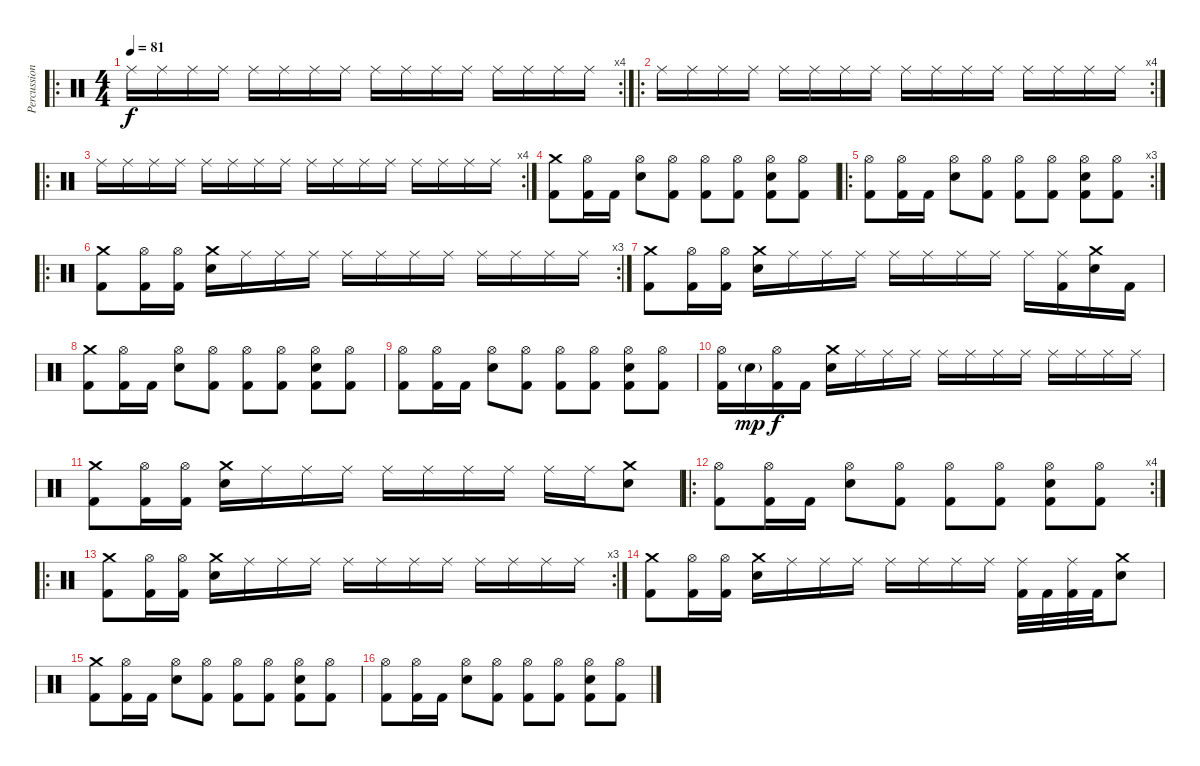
\track ("Percussion" "Percussion") {instrument percussion}
\staff {score}
\articulation defaults
\ro
\rc 4
\ts (4 4)
\tempo 81
\clef neutral
\ks c "Ride (middle)".16{dy f} "Ride (middle)".16 "Ride (middle)".16 "Ride (middle)".16 "Ride (middle)".16 "Ride (middle)".16 "Ride (middle)".16 "Ride (middle)".16 "Ride (middle)".16 "Ride (middle)".16 "Ride (middle)".16 "Ride (middle)".16 "Ride (middle)".16 "Ride (middle)".16 "Ride (middle)".16 "Ride (middle)".16
|
\ro
\rc 4 "Ride (middle)".16 "Ride (middle)".16 "Ride (middle)".16 "Ride (middle)".16 "Ride (middle)".16 "Ride (middle)".16 "Ride (middle)".16 "Ride (middle)".16 "Ride (middle)".16 "Ride (middle)".16 "Ride (middle)".16 "Ride (middle)".16 "Ride (middle)".16 "Ride (middle)".16 "Ride (middle)".16 "Ride (middle)".16
|
\ro
\rc 4 "Ride (middle)".16 "Ride (middle)".16 "Ride (middle)".16 "Ride (middle)".16 "Ride (middle)".16 "Ride (middle)".16 "Ride (middle)".16 "Ride (middle)".16 "Ride (middle)".16 "Ride (middle)".16 "Ride (middle)".16 "Ride (middle)".16 "Ride (middle)".16 "Ride (middle)".16 "Ride (middle)".16 "Ride (middle)".16
|
("Crash medium (hit)" "Kick (hit) 2").8 ("Hi-Hat (open)" "Kick (hit) 2").16 "Kick (hit) 2".16 ("Hi-Hat (open)" "Electric Snare (hit)").8 ("Hi-Hat (open)" "Kick (hit) 2").8 ("Hi-Hat (open)" "Kick (hit) 2").8 ("Hi-Hat (open)" "Kick (hit) 2").8 ("Hi-Hat (open)" "Electric Snare (hit)" "Kick (hit) 2").8 ("Hi-Hat (open)" "Kick (hit) 2").8 |
\ro
\rc 3
("Hi-Hat (open)" "Kick (hit) 2").8 ("Hi-Hat (open)" "Kick (hit) 2").16 "Kick (hit) 2".16 ("Hi-Hat (open)" "Electric Snare (hit)").8 ("Hi-Hat (open)" "Kick (hit) 2").8 ("Hi-Hat (open)" "Kick (hit) 2").8 ("Hi-Hat (open)" "Kick (hit) 2").8 ("Hi-Hat (open)" "Electric Snare (hit)" "Kick (hit) 2").8 ("Hi-Hat (open)" "Kick (hit) 2").8 |
\ro
\rc 3
("Crash medium (hit)" "Kick (hit) 2").8 ("Hi-Hat (open)" "Kick (hit) 2").16 ("Hi-Hat (open)" "Kick (hit) 2").16 ("Crash medium (hit)" "Electric Snare (hit)").16 "Ride (middle)".16 "Ride (middle)".16 "Ride (middle)".16 "Ride (middle)".16 "Ride (middle)".16 "Ride (middle)".16 "Ride (middle)".16 "Ride (middle)".16 "Ride (middle)".16 "Ride (middle)".16 "Ride (middle)".16 |
("Crash medium (hit)" "Kick (hit) 2").8 ("Hi-Hat (open)" "Kick (hit) 2").16 ("Hi-Hat (open)" "Kick (hit) 2").16 ("Crash medium (hit)" "Electric Snare (hit)").16 "Ride (middle)".16 "Ride (middle)".16 "Ride (middle)".16 "Ride (middle)".16 "Ride (middle)".16 "Ride (middle)".16 "Ride (middle)".16 "Ride (middle)".16 ("Ride (middle)" "Kick (hit) 2").16 ("Crash medium (hit)" "Electric Snare (hit)").16 "Kick (hit) 2".16 |
("Crash medium (hit)" "Kick (hit) 2").8 ("Hi-Hat (open)" "Kick (hit) 2").16 "Kick (hit) 2".16 ("Hi-Hat (open)" "Electric Snare (hit)").8 ("Hi-Hat (open)" "Kick (hit) 2").8 ("Hi-Hat (open)" "Kick (hit) 2").8 ("Hi-Hat (open)" "Kick (hit) 2").8 ("Hi-Hat (open)" "Electric Snare (hit)" "Kick (hit) 2").8 ("Hi-Hat (open)" "Kick (hit) 2").8 |
("Hi-Hat (open)" "Kick (hit) 2").8 ("Hi-Hat (open)" "Kick (hit) 2").16 "Kick (hit) 2".16 ("Hi-Hat (open)" "Electric Snare (hit)").8 ("Hi-Hat (open)" "Kick (hit) 2").8 ("Hi-Hat (open)" "Kick (hit) 2").8 ("Hi-Hat (open)" "Kick (hit) 2").8 ("Hi-Hat (open)" "Electric Snare (hit)" "Kick (hit) 2").8 ("Hi-Hat (open)" "Kick (hit) 2").8 |
("Hi-Hat (open)" "Kick (hit) 2").16 "Electric Snare (hit)"{g}.16{dy mp} ("Hi-Hat (open)" "Kick (hit) 2").16{dy f} "Kick (hit) 2".16 ("Crash medium (hit)" "Electric Snare (hit)").16 "Ride (middle)".16 "Ride (middle)".16 "Ride (middle)".16 "Ride (middle)".16 "Ride (middle)".16 "Ride (middle)".16 "Ride (middle)".16 "Ride (middle)".16 "Ride (middle)".16 "Ride (middle)".16 "Ride (middle)".16 |
("Crash medium (hit)" "Kick (hit) 2").8 ("Hi-Hat (open)" "Kick (hit) 2").16 ("Hi-Hat (open)" "Kick (hit) 2").16 ("Crash medium (hit)" "Electric Snare (hit)").16 "Ride (middle)".16 "Ride (middle)".16 "Ride (middle)".16 "Ride (middle)".16 "Ride (middle)".16 "Ride (middle)".16 "Ride (middle)".16 "Ride (middle)".16 "Ride (middle)".16 ("Crash medium (hit)" "Electric Snare (hit)").8 |
\ro
\rc 4
("Hi-Hat (open)" "Kick (hit) 2").8 ("Hi-Hat (open)" "Kick (hit) 2").16 "Kick (hit) 2".16 ("Hi-Hat (open)" "Electric Snare (hit)").8 ("Hi-Hat (open)" "Kick (hit) 2").8 ("Hi-Hat (open)" "Kick (hit) 2").8 ("Hi-Hat (open)" "Kick (hit) 2").8 ("Hi-Hat (open)" "Electric Snare (hit)" "Kick (hit) 2").8 ("Hi-Hat (open)" "Kick (hit) 2").8 |
\ro
\rc 3
("Crash medium (hit)" "Kick (hit) 2").8 ("Hi-Hat (open)" "Kick (hit) 2").16 ("Hi-Hat (open)" "Kick (hit) 2").16 ("Crash medium (hit)" "Electric Snare (hit)").16 "Ride (middle)".16 "Ride (middle)".16 "Ride (middle)".16 "Ride (middle)".16 "Ride (middle)".16 "Ride (middle)".16 "Ride (middle)".16 "Ride (middle)".16 "Ride (middle)".16 "Ride (middle)".16 "Ride (middle)".16 |
("Crash medium (hit)" "Kick (hit) 2").8 ("Hi-Hat (open)" "Kick (hit) 2").16 ("Hi-Hat (open)" "Kick (hit) 2").16 ("Crash medium (hit)" "Electric Snare (hit)").16 "Ride (middle)".16 "Ride (middle)".16 "Ride (middle)".16 "Ride (middle)".16 "Ride (middle)".16 "Ride (middle)".16 "Ride (middle)".16 ("Ride (middle)" "Kick (hit) 2").32 "Kick (hit) 2".32 ("Ride (middle)" "Kick (hit) 2").32 "Kick (hit) 2".32 ("Crash medium (hit)" "Electric Snare (hit)").8 |
("Crash medium (hit)" "Kick (hit) 2").8 ("Hi-Hat (open)" "Kick (hit) 2").16 "Kick (hit) 2".16 ("Hi-Hat (open)" "Electric Snare (hit)").8 ("Hi-Hat (open)" "Kick (hit) 2").8 ("Hi-Hat (open)" "Kick (hit) 2").8 ("Hi-Hat (open)" "Kick (hit) 2").8 ("Hi-Hat (open)" "Electric Snare (hit)" "Kick (hit) 2").8 ("Hi-Hat (open)" "Kick (hit) 2").8 |
("Hi-Hat (open)" "Kick (hit) 2").8 ("Hi-Hat (open)" "Kick (hit) 2").16 "Kick (hit) 2".16 ("Hi-Hat (open)" "Electric Snare (hit)").8 ("Hi-Hat (open)" "Kick (hit) 2").8 ("Hi-Hat (open)" "Kick (hit) 2").8 ("Hi-Hat (open)" "Kick (hit) 2").8 ("Hi-Hat (open)" "Electric Snare (hit)" "Kick (hit) 2").8 ("Hi-Hat (open)" "Kick (hit) 2").8
